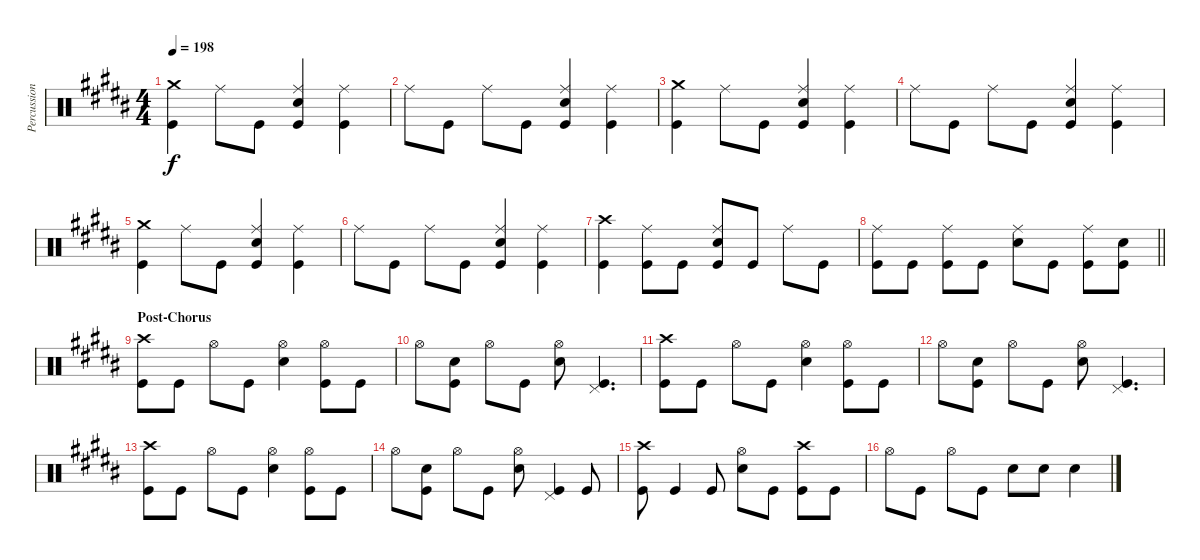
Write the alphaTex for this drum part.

\track ("Percussion" "Percussion") {instrument percussion}
\staff {score}
\articulation defaults
\ts (4 4)
\tempo 198
\clef neutral
\ks b
("Crash medium (hit)" "Kick (hit)").4{dy f} "Ride (middle)".8 "Kick (hit)".8 ("Ride (middle)" "Electric Snare (hit)" "Kick (hit)").4 ("Ride (middle)" "Kick (hit)").4 |
"Ride (middle)".8 "Kick (hit)".8 "Ride (middle)".8 "Kick (hit)".8 ("Ride (middle)" "Electric Snare (hit)" "Kick (hit)").4 ("Ride (middle)" "Kick (hit)").4 |
("Crash medium (hit)" "Kick (hit)").4 "Ride (middle)".8 "Kick (hit)".8 ("Ride (middle)" "Electric Snare (hit)" "Kick (hit)").4 ("Ride (middle)" "Kick (hit)").4 |
"Ride (middle)".8 "Kick (hit)".8 "Ride (middle)".8 "Kick (hit)".8 ("Ride (middle)" "Electric Snare (hit)" "Kick (hit)").4 ("Ride (middle)" "Kick (hit)").4 |
("Crash medium (hit)" "Kick (hit)").4 "Ride (middle)".8 "Kick (hit)".8 ("Ride (middle)" "Electric Snare (hit)" "Kick (hit)").4 ("Ride (middle)" "Kick (hit)").4 |
"Ride (middle)".8 "Kick (hit)".8 "Ride (middle)".8 "Kick (hit)".8 ("Ride (middle)" "Electric Snare (hit)" "Kick (hit)").4 ("Ride (middle)" "Kick (hit)").4 |
("Crash high (hit)" "Kick (hit)").4 ("Ride (middle)" "Kick (hit)").8 "Kick (hit)".8 ("Ride (middle)" "Electric Snare (hit)" "Kick (hit)").8 "Kick (hit)".8 "Ride (middle)".8 "Kick (hit)".8 |
\barLineRight lightlight
("Ride (middle)" "Kick (hit)").8 "Kick (hit)".8 ("Ride (middle)" "Kick (hit)").8 "Kick (hit)".8 ("Ride (middle)" "Electric Snare (hit)").8 "Kick (hit)".8 ("Ride (middle)" "Kick (hit)").8 ("Electric Snare (hit)" "Kick (hit)").8 |
\section ("" "Post-Chorus")
("Crash high (hit)" "Kick (hit)").8 "Kick (hit)".8 "Hi-Hat (open)".8 "Kick (hit)".8 ("Hi-Hat (open)" "Electric Snare (hit)").4 ("Hi-Hat (open)" "Kick (hit)").8 "Kick (hit)".8 |
"Hi-Hat (open)".8 ("Electric Snare (hit)" "Kick (hit)").8 "Hi-Hat (open)".8 "Kick (hit)".8 ("Hi-Hat (open)" "Electric Snare (hit)").8 ("Pedal Hi-Hat (hit)" "Kick (hit)").4{d} |
("Crash high (hit)" "Kick (hit)").8 "Kick (hit)".8 "Hi-Hat (open)".8 "Kick (hit)".8 ("Hi-Hat (open)" "Electric Snare (hit)").4 ("Hi-Hat (open)" "Kick (hit)").8 "Kick (hit)".8 |
"Hi-Hat (open)".8 ("Electric Snare (hit)" "Kick (hit)").8 "Hi-Hat (open)".8 "Kick (hit)".8 ("Hi-Hat (open)" "Electric Snare (hit)").8 ("Pedal Hi-Hat (hit)" "Kick (hit)").4{d} |
("Crash high (hit)" "Kick (hit)").8 "Kick (hit)".8 "Hi-Hat (open)".8 "Kick (hit)".8 ("Hi-Hat (open)" "Electric Snare (hit)").4 ("Hi-Hat (open)" "Kick (hit)").8 "Kick (hit)".8 |
"Hi-Hat (open)".8 ("Electric Snare (hit)" "Kick (hit)").8 "Hi-Hat (open)".8 "Kick (hit)".8 ("Hi-Hat (open)" "Electric Snare (hit)").8 ("Pedal Hi-Hat (hit)" "Kick (hit)").4 "Kick (hit)".8 |
("Crash high (hit)" "Kick (hit)").8 "Kick (hit)".4 "Kick (hit)".8 ("Hi-Hat (open)" "Electric Snare (hit)").8 "Kick (hit)".8 ("Crash high (hit)" "Kick (hit)").8 "Kick (hit)".8 |
"Hi-Hat (open)".8 "Kick (hit)".8 "Hi-Hat (open)".8 "Kick (hit)".8 "Electric Snare (hit)".8 "Electric Snare (hit)".8 "Electric Snare (hit)".4
